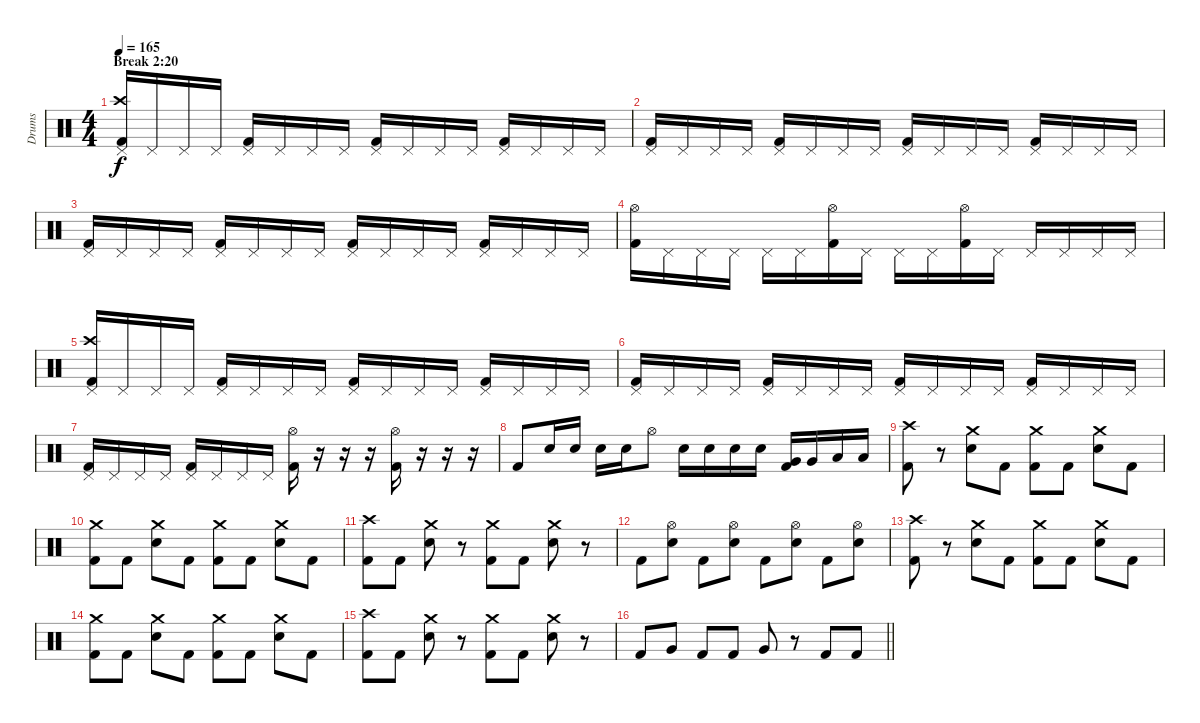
\track ("Drums" "Drums") {instrument percussion}
\staff {score}
\articulation defaults
\ts (4 4)
\section ("" "Break 2:20")
\tempo 165
\clef neutral
\ks c
("Pedal Hi-Hat (hit)" "Crash high (hit)" "Kick (hit) 2").16{dy f} "Pedal Hi-Hat (hit)".16 "Pedal Hi-Hat (hit)".16 "Pedal Hi-Hat (hit)".16 ("Pedal Hi-Hat (hit)" "Kick (hit) 2").16 "Pedal Hi-Hat (hit)".16 "Pedal Hi-Hat (hit)".16 "Pedal Hi-Hat (hit)".16 ("Pedal Hi-Hat (hit)" "Kick (hit) 2").16 "Pedal Hi-Hat (hit)".16 "Pedal Hi-Hat (hit)".16 "Pedal Hi-Hat (hit)".16 ("Pedal Hi-Hat (hit)" "Kick (hit) 2").16 "Pedal Hi-Hat (hit)".16 "Pedal Hi-Hat (hit)".16 "Pedal Hi-Hat (hit)".16 |
("Pedal Hi-Hat (hit)" "Kick (hit) 2").16 "Pedal Hi-Hat (hit)".16 "Pedal Hi-Hat (hit)".16 "Pedal Hi-Hat (hit)".16 ("Pedal Hi-Hat (hit)" "Kick (hit) 2").16 "Pedal Hi-Hat (hit)".16 "Pedal Hi-Hat (hit)".16 "Pedal Hi-Hat (hit)".16 ("Pedal Hi-Hat (hit)" "Kick (hit) 2").16 "Pedal Hi-Hat (hit)".16 "Pedal Hi-Hat (hit)".16 "Pedal Hi-Hat (hit)".16 ("Pedal Hi-Hat (hit)" "Kick (hit) 2").16 "Pedal Hi-Hat (hit)".16 "Pedal Hi-Hat (hit)".16 "Pedal Hi-Hat (hit)".16 |
("Pedal Hi-Hat (hit)" "Kick (hit) 2").16 "Pedal Hi-Hat (hit)".16 "Pedal Hi-Hat (hit)".16 "Pedal Hi-Hat (hit)".16 ("Pedal Hi-Hat (hit)" "Kick (hit) 2").16 "Pedal Hi-Hat (hit)".16 "Pedal Hi-Hat (hit)".16 "Pedal Hi-Hat (hit)".16 ("Pedal Hi-Hat (hit)" "Kick (hit) 2").16 "Pedal Hi-Hat (hit)".16 "Pedal Hi-Hat (hit)".16 "Pedal Hi-Hat (hit)".16 ("Pedal Hi-Hat (hit)" "Kick (hit) 2").16 "Pedal Hi-Hat (hit)".16 "Pedal Hi-Hat (hit)".16 "Pedal Hi-Hat (hit)".16 |
("Hi-Hat (open)" "Kick (hit) 2").16 "Pedal Hi-Hat (hit)".16 "Pedal Hi-Hat (hit)".16 "Pedal Hi-Hat (hit)".16 "Pedal Hi-Hat (hit)".16 "Pedal Hi-Hat (hit)".16 ("Hi-Hat (open)" "Kick (hit) 2").16 "Pedal Hi-Hat (hit)".16 "Pedal Hi-Hat (hit)".16 "Pedal Hi-Hat (hit)".16 ("Hi-Hat (open)" "Kick (hit) 2").16 "Pedal Hi-Hat (hit)".16 "Pedal Hi-Hat (hit)".16 "Pedal Hi-Hat (hit)".16 "Pedal Hi-Hat (hit)".16 "Pedal Hi-Hat (hit)".16 |
("Pedal Hi-Hat (hit)" "Crash high (hit)" "Kick (hit) 2").16 "Pedal Hi-Hat (hit)".16 "Pedal Hi-Hat (hit)".16 "Pedal Hi-Hat (hit)".16 ("Pedal Hi-Hat (hit)" "Kick (hit) 2").16 "Pedal Hi-Hat (hit)".16 "Pedal Hi-Hat (hit)".16 "Pedal Hi-Hat (hit)".16 ("Pedal Hi-Hat (hit)" "Kick (hit) 2").16 "Pedal Hi-Hat (hit)".16 "Pedal Hi-Hat (hit)".16 "Pedal Hi-Hat (hit)".16 ("Pedal Hi-Hat (hit)" "Kick (hit) 2").16 "Pedal Hi-Hat (hit)".16 "Pedal Hi-Hat (hit)".16 "Pedal Hi-Hat (hit)".16 |
("Pedal Hi-Hat (hit)" "Kick (hit) 2").16 "Pedal Hi-Hat (hit)".16 "Pedal Hi-Hat (hit)".16 "Pedal Hi-Hat (hit)".16 ("Pedal Hi-Hat (hit)" "Kick (hit) 2").16 "Pedal Hi-Hat (hit)".16 "Pedal Hi-Hat (hit)".16 "Pedal Hi-Hat (hit)".16 ("Pedal Hi-Hat (hit)" "Kick (hit) 2").16 "Pedal Hi-Hat (hit)".16 "Pedal Hi-Hat (hit)".16 "Pedal Hi-Hat (hit)".16 ("Pedal Hi-Hat (hit)" "Kick (hit) 2").16 "Pedal Hi-Hat (hit)".16 "Pedal Hi-Hat (hit)".16 "Pedal Hi-Hat (hit)".16 |
("Pedal Hi-Hat (hit)" "Kick (hit) 2").16 "Pedal Hi-Hat (hit)".16 "Pedal Hi-Hat (hit)".16 "Pedal Hi-Hat (hit)".16 ("Pedal Hi-Hat (hit)" "Kick (hit) 2").16 "Pedal Hi-Hat (hit)".16 "Pedal Hi-Hat (hit)".16 "Pedal Hi-Hat (hit)".16 ("Hi-Hat (open)" "Kick (hit) 2").16 r.16 r.16 r.16 ("Hi-Hat (open)" "Kick (hit) 2").16 r.16 r.16 r.16 |
"Kick (hit) 2".8 "Electric Snare (hit)".16 "Electric Snare (hit)".16 "Electric Snare (hit)".16 "Electric Snare (hit)".16 "Hi-Hat (open)".8 "Electric Snare (hit)".16 "Electric Snare (hit)".16 "Electric Snare (hit)".16 "Electric Snare (hit)".16 ("Kick (hit) 2" "Very Low Tom (hit)").16 "Very Low Tom (hit)".16 "Low Floor Tom (hit)".16 "Low Floor Tom (hit)".16 |
("Crash high (hit)" "Kick (hit) 2").8 r.8 ("Crash medium (hit)" "Electric Snare (hit)").8 "Kick (hit) 2".8 ("Crash medium (hit)" "Kick (hit) 2").8 "Kick (hit) 2".8 ("Crash medium (hit)" "Electric Snare (hit)").8 "Kick (hit) 2".8 |
("Crash medium (hit)" "Kick (hit) 2").8 "Kick (hit) 2".8 ("Crash medium (hit)" "Electric Snare (hit)").8 "Kick (hit) 2".8 ("Crash medium (hit)" "Kick (hit) 2").8 "Kick (hit) 2".8 ("Crash medium (hit)" "Electric Snare (hit)").8 "Kick (hit) 2".8 |
("Crash high (hit)" "Kick (hit) 2").8 "Kick (hit) 2".8 ("Crash medium (hit)" "Electric Snare (hit)").8 r.8 ("Crash medium (hit)" "Kick (hit) 2").8 "Kick (hit) 2".8 ("Crash medium (hit)" "Electric Snare (hit)").8 r.8 |
"Kick (hit) 2".8 ("Hi-Hat (open)" "Electric Snare (hit)").8 "Kick (hit) 2".8 ("Hi-Hat (open)" "Electric Snare (hit)").8 "Kick (hit) 2".8 ("Hi-Hat (open)" "Electric Snare (hit)").8 "Kick (hit) 2".8 ("Hi-Hat (open)" "Electric Snare (hit)").8 |
("Crash high (hit)" "Kick (hit) 2").8 r.8 ("Crash medium (hit)" "Electric Snare (hit)").8 "Kick (hit) 2".8 ("Crash medium (hit)" "Kick (hit) 2").8 "Kick (hit) 2".8 ("Crash medium (hit)" "Electric Snare (hit)").8 "Kick (hit) 2".8 |
("Crash medium (hit)" "Kick (hit) 2").8 "Kick (hit) 2".8 ("Crash medium (hit)" "Electric Snare (hit)").8 "Kick (hit) 2".8 ("Crash medium (hit)" "Kick (hit) 2").8 "Kick (hit) 2".8 ("Crash medium (hit)" "Electric Snare (hit)").8 "Kick (hit) 2".8 |
("Crash high (hit)" "Kick (hit) 2").8 "Kick (hit) 2".8 ("Crash medium (hit)" "Electric Snare (hit)").8 r.8 ("Crash medium (hit)" "Kick (hit) 2").8 "Kick (hit) 2".8 ("Crash medium (hit)" "Electric Snare (hit)").8 r.8 |
\barLineRight lightlight "Kick (hit) 2".8 "Very Low Tom (hit)".8 "Kick (hit) 2".8 "Kick (hit) 2".8 "Very Low Tom (hit)".8
r.8 "Kick (hit) 2".8 "Kick (hit) 2".8
